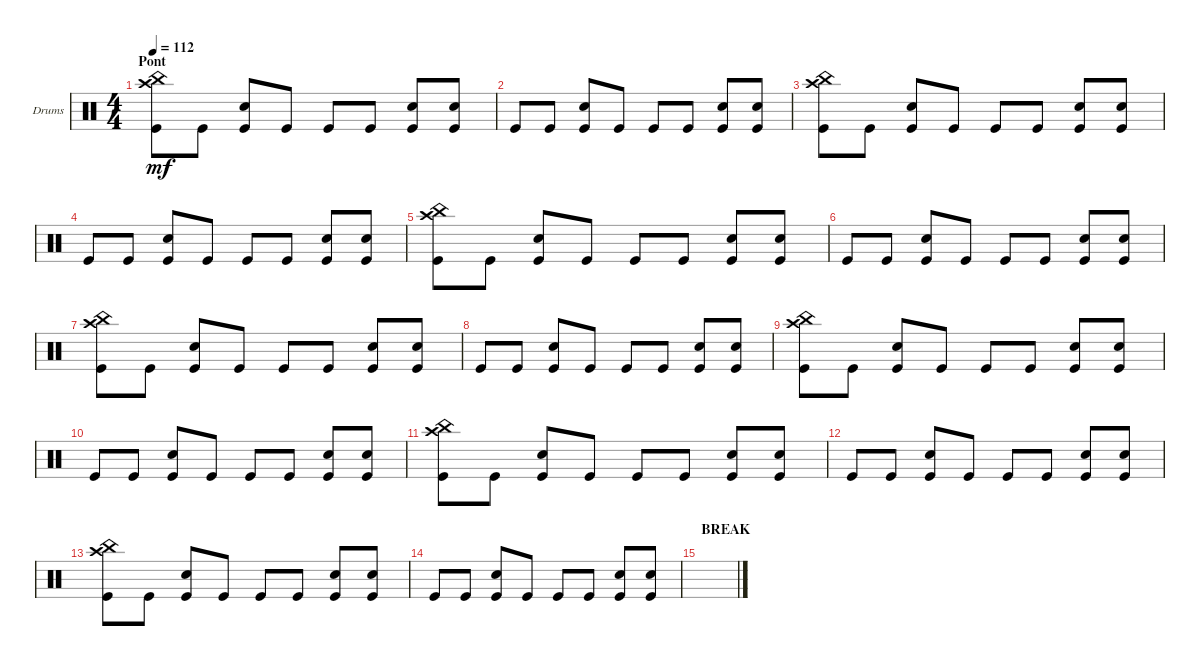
\defaultSystemsLayout 4
\bracketExtendMode groupsimilarinstruments
\firstSystemTrackNameOrientation horizontal
\otherSystemsTrackNameOrientation horizontal
\track ("Drumkit" "Drums") {instrument percussion}
\staff {score}
\articulation defaults
\ts (4 4)
\section ("" "Pont")
\tempo 112
\clef neutral
\ks c
("Kick (hit)" "Crash high (hit)" "China (hit)").8{dy mf} "Kick (hit)".8 ("Kick (hit)" "Snare (hit) 2").8 "Kick (hit)".8 "Kick (hit)".8 "Kick (hit)".8 ("Kick (hit)" "Snare (hit) 2").8 ("Kick (hit)" "Snare (hit) 2").8 |
"Kick (hit)".8 "Kick (hit)".8 ("Kick (hit)" "Snare (hit) 2").8 "Kick (hit)".8 "Kick (hit)".8 "Kick (hit)".8 ("Kick (hit)" "Snare (hit) 2").8 ("Kick (hit)" "Snare (hit) 2").8 |
\scale
1.07945 ("Kick (hit)" "Crash high (hit)" "China (hit)").8 "Kick (hit)".8 ("Kick (hit)" "Snare (hit) 2").8 "Kick (hit)".8 "Kick (hit)".8 "Kick (hit)".8 ("Kick (hit)" "Snare (hit) 2").8 ("Kick (hit)" "Snare (hit) 2").8 |
\scale
0.973518 "Kick (hit)".8 "Kick (hit)".8 ("Kick (hit)" "Snare (hit) 2").8 "Kick (hit)".8 "Kick (hit)".8 "Kick (hit)".8 ("Kick (hit)" "Snare (hit) 2").8 ("Kick (hit)" "Snare (hit) 2").8 |
\scale
0.973518 ("Kick (hit)" "Crash high (hit)" "China (hit)").8 "Kick (hit)".8 ("Kick (hit)" "Snare (hit) 2").8 "Kick (hit)".8 "Kick (hit)".8 "Kick (hit)".8 ("Kick (hit)" "Snare (hit) 2").8 ("Kick (hit)" "Snare (hit) 2").8 |
\scale
0.973518 "Kick (hit)".8 "Kick (hit)".8 ("Kick (hit)" "Snare (hit) 2").8 "Kick (hit)".8 "Kick (hit)".8 "Kick (hit)".8 ("Kick (hit)" "Snare (hit) 2").8 ("Kick (hit)" "Snare (hit) 2").8 |
\scale
1.07945 ("Kick (hit)" "Crash high (hit)" "China (hit)").8 "Kick (hit)".8 ("Kick (hit)" "Snare (hit) 2").8 "Kick (hit)".8 "Kick (hit)".8 "Kick (hit)".8 ("Kick (hit)" "Snare (hit) 2").8 ("Kick (hit)" "Snare (hit) 2").8 |
\scale
0.973518 "Kick (hit)".8 "Kick (hit)".8 ("Kick (hit)" "Snare (hit) 2").8 "Kick (hit)".8 "Kick (hit)".8 "Kick (hit)".8 ("Kick (hit)" "Snare (hit) 2").8 ("Kick (hit)" "Snare (hit) 2").8 |
\scale
0.973518 ("Kick (hit)" "Crash high (hit)" "China (hit)").8 "Kick (hit)".8 ("Kick (hit)" "Snare (hit) 2").8 "Kick (hit)".8 "Kick (hit)".8 "Kick (hit)".8 ("Kick (hit)" "Snare (hit) 2").8 ("Kick (hit)" "Snare (hit) 2").8 |
\scale
0.973518 "Kick (hit)".8 "Kick (hit)".8 ("Kick (hit)" "Snare (hit) 2").8 "Kick (hit)".8 "Kick (hit)".8 "Kick (hit)".8 ("Kick (hit)" "Snare (hit) 2").8 ("Kick (hit)" "Snare (hit) 2").8 |
\scale
1.07945 ("Kick (hit)" "Crash high (hit)" "China (hit)").8 "Kick (hit)".8 ("Kick (hit)" "Snare (hit) 2").8 "Kick (hit)".8 "Kick (hit)".8 "Kick (hit)".8 ("Kick (hit)" "Snare (hit) 2").8 ("Kick (hit)" "Snare (hit) 2").8 |
\scale
0.973518 "Kick (hit)".8 "Kick (hit)".8 ("Kick (hit)" "Snare (hit) 2").8 "Kick (hit)".8 "Kick (hit)".8 "Kick (hit)".8 ("Kick (hit)" "Snare (hit) 2").8 ("Kick (hit)" "Snare (hit) 2").8 |
\scale
0.973518 ("Kick (hit)" "Crash high (hit)" "China (hit)").8 "Kick (hit)".8 ("Kick (hit)" "Snare (hit) 2").8 "Kick (hit)".8 "Kick (hit)".8 "Kick (hit)".8 ("Kick (hit)" "Snare (hit) 2").8 ("Kick (hit)" "Snare (hit) 2").8 |
\scale
0.973518 "Kick (hit)".8 "Kick (hit)".8 ("Kick (hit)" "Snare (hit) 2").8 "Kick (hit)".8 "Kick (hit)".8 "Kick (hit)".8 ("Kick (hit)" "Snare (hit) 2").8 ("Kick (hit)" "Snare (hit) 2").8 |
\section ("" "BREAK")
\scale
1.07945 |
\scale
0.973518
